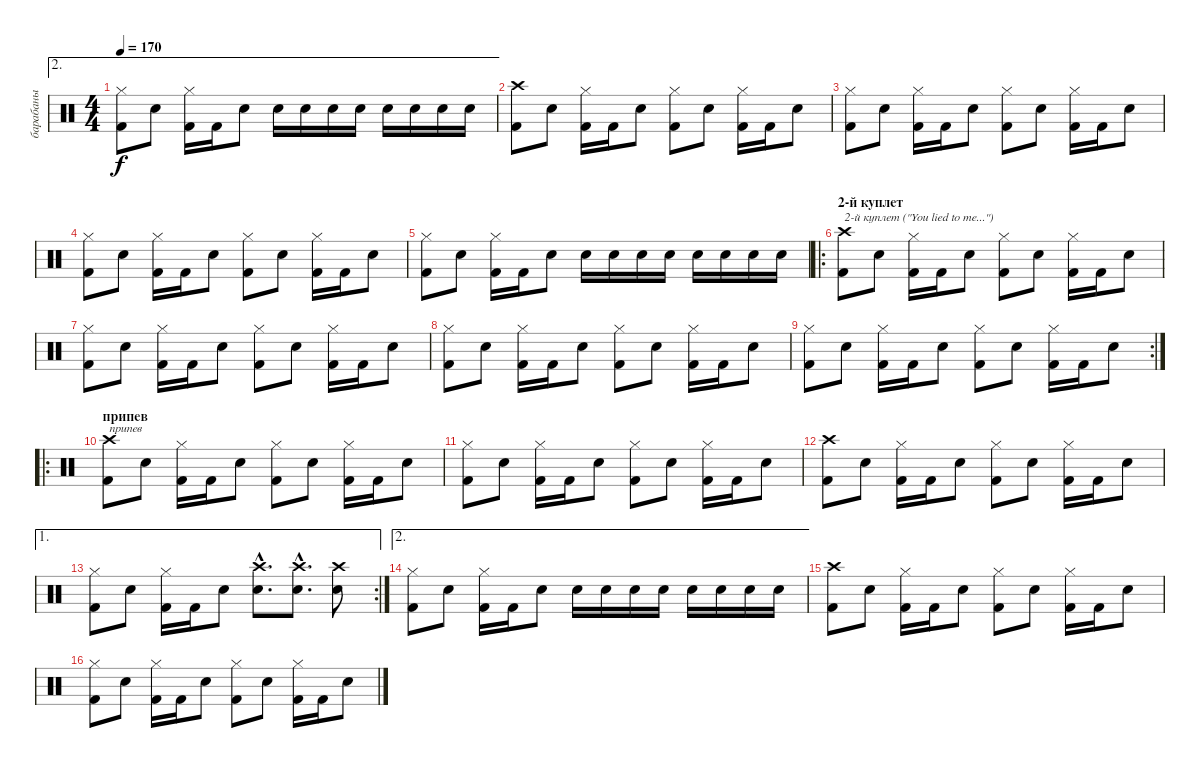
\track ("барабаны" "барабаны") {instrument percussion}
\staff {score}
\articulation defaults
\ae 2
\ts (4 4)
\tempo 170
\clef neutral
\ks c
("Hi-Hat (closed)" "Kick (hit) 2").8{dy f} "Snare (hit) 2".8 ("Hi-Hat (closed)" "Kick (hit) 2").16 "Kick (hit) 2".16 "Snare (hit) 2".8 "Snare (hit) 2".16 "Snare (hit) 2".16 "Snare (hit) 2".16 "Snare (hit) 2".16 "Snare (hit) 2".16 "Snare (hit) 2".16 "Snare (hit) 2".16 "Snare (hit) 2".16 |
("Crash high (hit)" "Kick (hit) 2").8 "Snare (hit) 2".8 ("Hi-Hat (closed)" "Kick (hit) 2").16 "Kick (hit) 2".16 "Snare (hit) 2".8 ("Hi-Hat (closed)" "Kick (hit) 2").8 "Snare (hit) 2".8 ("Hi-Hat (closed)" "Kick (hit) 2").16 "Kick (hit) 2".16 "Snare (hit) 2".8 |
("Hi-Hat (closed)" "Kick (hit) 2").8 "Snare (hit) 2".8 ("Hi-Hat (closed)" "Kick (hit) 2").16 "Kick (hit) 2".16 "Snare (hit) 2".8 ("Hi-Hat (closed)" "Kick (hit) 2").8 "Snare (hit) 2".8 ("Hi-Hat (closed)" "Kick (hit) 2").16 "Kick (hit) 2".16 "Snare (hit) 2".8 |
("Hi-Hat (closed)" "Kick (hit) 2").8 "Snare (hit) 2".8 ("Hi-Hat (closed)" "Kick (hit) 2").16 "Kick (hit) 2".16 "Snare (hit) 2".8 ("Hi-Hat (closed)" "Kick (hit) 2").8 "Snare (hit) 2".8 ("Hi-Hat (closed)" "Kick (hit) 2").16 "Kick (hit) 2".16 "Snare (hit) 2".8 |
("Hi-Hat (closed)" "Kick (hit) 2").8 "Snare (hit) 2".8 ("Hi-Hat (closed)" "Kick (hit) 2").16 "Kick (hit) 2".16 "Snare (hit) 2".8 "Snare (hit) 2".16 "Snare (hit) 2".16 "Snare (hit) 2".16 "Snare (hit) 2".16 "Snare (hit) 2".16 "Snare (hit) 2".16 "Snare (hit) 2".16 "Snare (hit) 2".16 |
\ro
\section ("" "2-й куплет")
("Crash high (hit)" "Kick (hit) 2").8{txt "2-й куплет (\"You lied to me...\")"} "Snare (hit) 2".8 ("Hi-Hat (closed)" "Kick (hit) 2").16 "Kick (hit) 2".16 "Snare (hit) 2".8 ("Hi-Hat (closed)" "Kick (hit) 2").8 "Snare (hit) 2".8 ("Hi-Hat (closed)" "Kick (hit) 2").16 "Kick (hit) 2".16 "Snare (hit) 2".8 |
("Hi-Hat (closed)" "Kick (hit) 2").8 "Snare (hit) 2".8 ("Hi-Hat (closed)" "Kick (hit) 2").16 "Kick (hit) 2".16 "Snare (hit) 2".8 ("Hi-Hat (closed)" "Kick (hit) 2").8 "Snare (hit) 2".8 ("Hi-Hat (closed)" "Kick (hit) 2").16 "Kick (hit) 2".16 "Snare (hit) 2".8 |
("Hi-Hat (closed)" "Kick (hit) 2").8 "Snare (hit) 2".8 ("Hi-Hat (closed)" "Kick (hit) 2").16 "Kick (hit) 2".16 "Snare (hit) 2".8 ("Hi-Hat (closed)" "Kick (hit) 2").8 "Snare (hit) 2".8 ("Hi-Hat (closed)" "Kick (hit) 2").16 "Kick (hit) 2".16 "Snare (hit) 2".8 |
\rc 2
("Hi-Hat (closed)" "Kick (hit) 2").8 "Snare (hit) 2".8 ("Hi-Hat (closed)" "Kick (hit) 2").16 "Kick (hit) 2".16 "Snare (hit) 2".8 ("Hi-Hat (closed)" "Kick (hit) 2").8 "Snare (hit) 2".8 ("Hi-Hat (closed)" "Kick (hit) 2").16 "Kick (hit) 2".16 "Snare (hit) 2".8 |
\ro
\section ("" "припев")
("Crash high (hit)" "Kick (hit) 2").8{txt "припев"} "Snare (hit) 2".8 ("Hi-Hat (closed)" "Kick (hit) 2").16 "Kick (hit) 2".16 "Snare (hit) 2".8 ("Hi-Hat (closed)" "Kick (hit) 2").8 "Snare (hit) 2".8 ("Hi-Hat (closed)" "Kick (hit) 2").16 "Kick (hit) 2".16 "Snare (hit) 2".8 |
("Hi-Hat (closed)" "Kick (hit) 2").8 "Snare (hit) 2".8 ("Hi-Hat (closed)" "Kick (hit) 2").16 "Kick (hit) 2".16 "Snare (hit) 2".8 ("Hi-Hat (closed)" "Kick (hit) 2").8 "Snare (hit) 2".8 ("Hi-Hat (closed)" "Kick (hit) 2").16 "Kick (hit) 2".16 "Snare (hit) 2".8 |
("Crash high (hit)" "Kick (hit) 2").8 "Snare (hit) 2".8 ("Hi-Hat (closed)" "Kick (hit) 2").16 "Kick (hit) 2".16 "Snare (hit) 2".8 ("Hi-Hat (closed)" "Kick (hit) 2").8 "Snare (hit) 2".8 ("Hi-Hat (closed)" "Kick (hit) 2").16 "Kick (hit) 2".16 "Snare (hit) 2".8 |
\ae 1
\rc 2
("Hi-Hat (closed)" "Kick (hit) 2").8 "Snare (hit) 2".8 ("Hi-Hat (closed)" "Kick (hit) 2").16 "Kick (hit) 2".16 "Snare (hit) 2".8 ("Crash high (hit)"{hac} "Snare (hit) 2"{hac}).8{d} ("Crash high (hit)"{hac} "Snare (hit) 2"{hac}).8{d} ("Crash high (hit)" "Snare (hit) 2").8 |
\ae 2
("Hi-Hat (closed)" "Kick (hit) 2").8 "Snare (hit) 2".8 ("Hi-Hat (closed)" "Kick (hit) 2").16 "Kick (hit) 2".16 "Snare (hit) 2".8 "Snare (hit) 2".16 "Snare (hit) 2".16 "Snare (hit) 2".16 "Snare (hit) 2".16 "Snare (hit) 2".16 "Snare (hit) 2".16 "Snare (hit) 2".16 "Snare (hit) 2".16 |
("Crash high (hit)" "Kick (hit) 2").8 "Snare (hit) 2".8 ("Hi-Hat (closed)" "Kick (hit) 2").16 "Kick (hit) 2".16 "Snare (hit) 2".8 ("Hi-Hat (closed)" "Kick (hit) 2").8 "Snare (hit) 2".8 ("Hi-Hat (closed)" "Kick (hit) 2").16 "Kick (hit) 2".16 "Snare (hit) 2".8 |
("Hi-Hat (closed)" "Kick (hit) 2").8 "Snare (hit) 2".8 ("Hi-Hat (closed)" "Kick (hit) 2").16 "Kick (hit) 2".16 "Snare (hit) 2".8 ("Hi-Hat (closed)" "Kick (hit) 2").8 "Snare (hit) 2".8 ("Hi-Hat (closed)" "Kick (hit) 2").16 "Kick (hit) 2".16 "Snare (hit) 2".8
